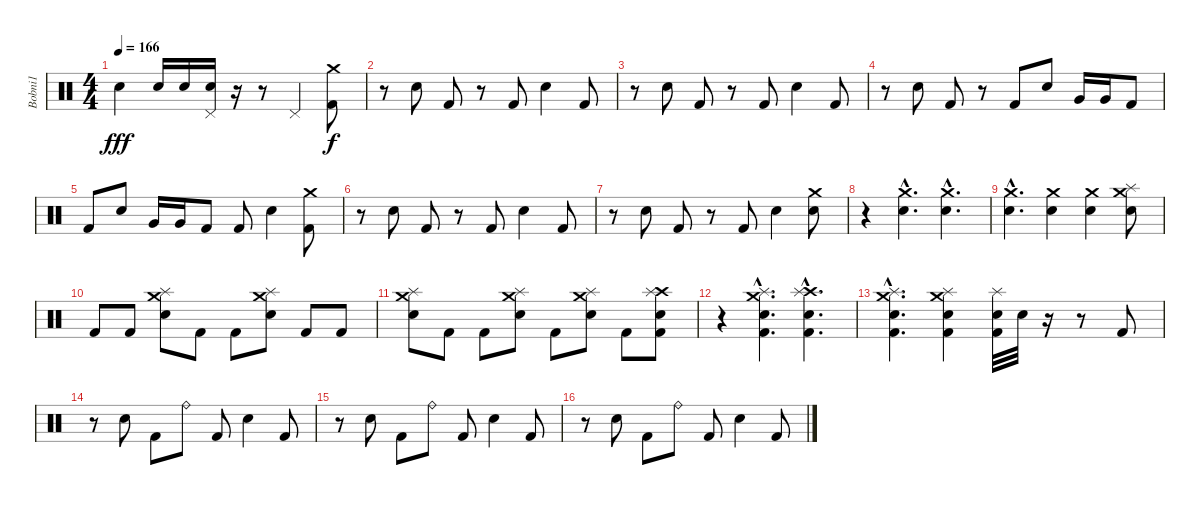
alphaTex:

\track ("Bobni1" "Bobni1") {instrument percussion}
\staff {score}
\articulation defaults
\ts (4 4)
\tempo 166
\clef neutral
\ks c "Snare (hit) 2".4{dy fff} "Snare (hit) 2".16 "Snare (hit) 2".16
("Pedal Hi-Hat (hit)" "Snare (hit) 2").16 r.16 r.8 "Pedal Hi-Hat (hit)".4 ("Crash medium (hit)" "Kick (hit) 2").8{dy f} |
r.8 "Snare (hit) 2".8 "Kick (hit) 2".8 r.8 "Kick (hit) 2".8 "Snare (hit) 2".4 "Kick (hit) 2".8 |
r.8 "Snare (hit) 2".8 "Kick (hit) 2".8 r.8 "Kick (hit) 2".8 "Snare (hit) 2".4 "Kick (hit) 2".8 |
r.8 "Snare (hit) 2".8 "Kick (hit) 2".8 r.8 "Kick (hit) 2".8 "Snare (hit) 2".8 "Very Low Tom (hit)".16 "Very Low Tom (hit)".16 "Kick (hit) 2".8 |
"Kick (hit) 2".8 "Snare (hit) 2".8 "Very Low Tom (hit)".16 "Very Low Tom (hit)".16 "Kick (hit) 2".8 "Kick (hit) 2".8 "Snare (hit) 2".4 ("Crash medium (hit)" "Kick (hit) 2").8 |
r.8 "Snare (hit) 2".8 "Kick (hit) 2".8 r.8 "Kick (hit) 2".8 "Snare (hit) 2".4 "Kick (hit) 2".8 |
r.8 "Snare (hit) 2".8 "Kick (hit) 2".8 r.8 "Kick (hit) 2".8 "Snare (hit) 2".4 ("Crash medium (hit)" "Snare (hit) 2").8 |
r.4 ("Crash medium (hit)"{hac} "Snare (hit) 2"{hac}).4{d} ("Crash medium (hit)"{hac} "Snare (hit) 2"{hac}).4{d} |
("Crash medium (hit)"{hac} "Snare (hit) 2"{hac}).4{d} ("Crash medium (hit)" "Snare (hit) 2").4 ("Crash medium (hit)" "Snare (hit) 2").4 ("Crash medium (hit)" "Splash (hit)" "Snare (hit) 2").8 |
"Kick (hit) 2".8 "Kick (hit) 2".8 ("Crash medium (hit)" "Splash (hit)" "Snare (hit) 2").8 "Kick (hit) 2".8 "Kick (hit) 2".8 ("Crash medium (hit)" "Splash (hit)" "Snare (hit) 2").8 "Kick (hit) 2".8 "Kick (hit) 2".8 |
("Crash medium (hit)" "Splash (hit)" "Snare (hit) 2").8 "Kick (hit) 2".8 "Kick (hit) 2".8 ("Crash medium (hit)" "Splash (hit)" "Snare (hit) 2").8 "Kick (hit) 2".8 ("Crash medium (hit)" "Splash (hit)" "Snare (hit) 2").8 "Kick (hit) 2".8 ("Crash high (hit)" "Splash (hit)" "Snare (hit) 2" "Kick (hit) 2").8 |
r.4 ("Crash medium (hit)"{hac} "Splash (hit)"{hac} "Snare (hit) 2"{hac} "Kick (hit) 2"{hac}).4{d} ("Crash high (hit)"{hac} "Splash (hit)"{hac} "Snare (hit) 2"{hac} "Kick (hit) 2"{hac}).4{d} |
("Crash medium (hit)"{hac} "Splash (hit)"{hac} "Snare (hit) 2"{hac} "Kick (hit) 2"{hac}).4{d} ("Crash medium (hit)" "Splash (hit)" "Snare (hit) 2" "Kick (hit) 2").4 ("Splash (hit)" "Snare (hit) 2" "Kick (hit) 2").32 "Snare (hit) 2".32 r.16 r.8 "Kick (hit) 2".8 |
r.8 "Snare (hit) 2".8 "Kick (hit) 2".8 "Ride (bell)".8 "Kick (hit) 2".8 "Snare (hit) 2".4 "Kick (hit) 2".8 |
r.8 "Snare (hit) 2".8 "Kick (hit) 2".8 "Ride (bell)".8 "Kick (hit) 2".8 "Snare (hit) 2".4 "Kick (hit) 2".8 |
r.8 "Snare (hit) 2".8 "Kick (hit) 2".8 "Ride (bell)".8 "Kick (hit) 2".8 "Snare (hit) 2".4 "Kick (hit) 2".8
